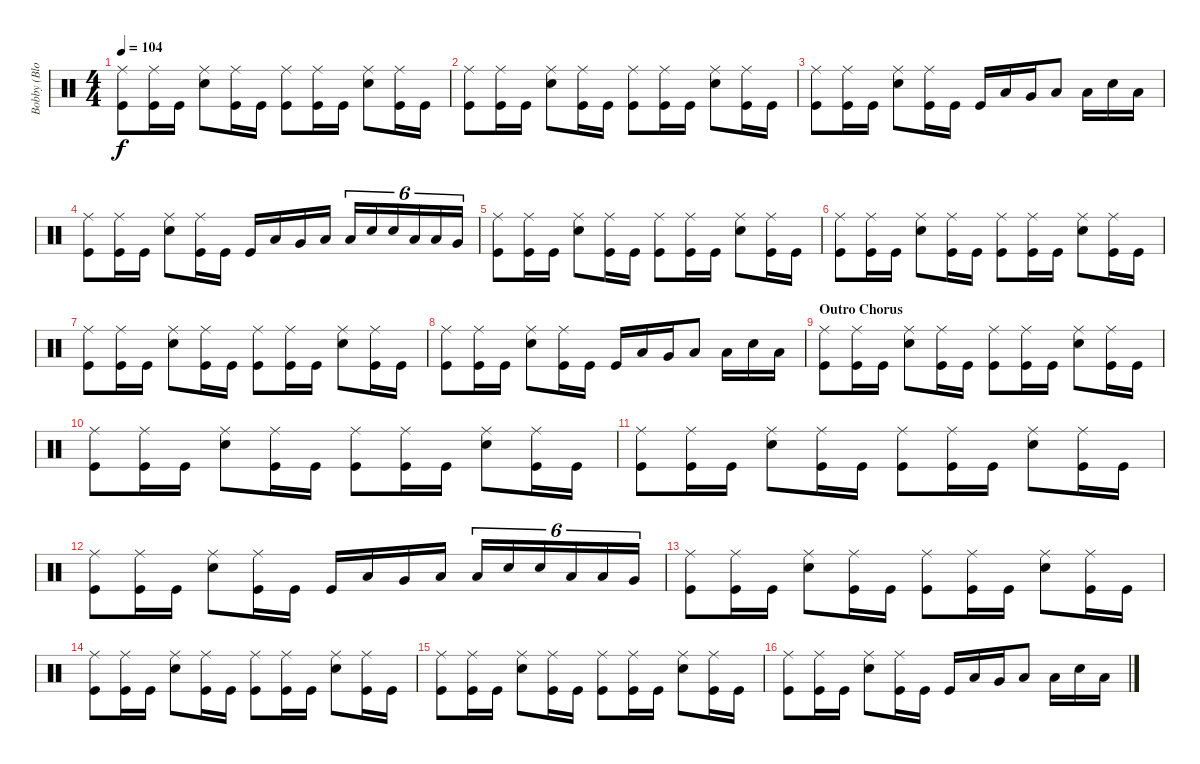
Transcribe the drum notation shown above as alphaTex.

\track ("Bobby (Blotz) Blotzer - Drums" "Bobby (Blo") {instrument percussion}
\staff {score}
\articulation defaults
\ts (4 4)
\tempo 104
\clef neutral
\ks c
("Ride (middle)" "Kick (hit)").8{dy f} ("Ride (middle)" "Kick (hit)").16 "Kick (hit)".16 ("Ride (middle)" "Snare (hit) 2").8 ("Ride (middle)" "Kick (hit)").16 "Kick (hit)".16 ("Ride (middle)" "Kick (hit)").8 ("Ride (middle)" "Kick (hit)").16 "Kick (hit)".16 ("Ride (middle)" "Snare (hit) 2").8 ("Ride (middle)" "Kick (hit)").16 "Kick (hit)".16 |
("Ride (middle)" "Kick (hit)").8 ("Ride (middle)" "Kick (hit)").16 "Kick (hit)".16 ("Ride (middle)" "Snare (hit) 2").8 ("Ride (middle)" "Kick (hit)").16 "Kick (hit)".16 ("Ride (middle)" "Kick (hit)").8 ("Ride (middle)" "Kick (hit)").16 "Kick (hit)".16 ("Ride (middle)" "Snare (hit) 2").8 ("Ride (middle)" "Kick (hit)").16 "Kick (hit)".16 |
("Ride (middle)" "Kick (hit)").8 ("Ride (middle)" "Kick (hit)").16 "Kick (hit)".16 ("Ride (middle)" "Snare (hit) 2").8 ("Ride (middle)" "Kick (hit)").16 "Kick (hit)".16 "Kick (hit)".16 "Low Tom (hit)".16 "Very Low Tom (hit)".16 "Low Tom (hit)".8 "Low Floor Tom (hit)".16 "Snare (hit) 2".16 "Low Tom (hit)".16 |
("Ride (middle)" "Kick (hit)").8 ("Ride (middle)" "Kick (hit)").16 "Kick (hit)".16 ("Ride (middle)" "Snare (hit) 2").8 ("Ride (middle)" "Kick (hit)").16 "Kick (hit)".16 "Kick (hit)".16 "Low Tom (hit)".16 "Very Low Tom (hit)".16 "Low Floor Tom (hit)".16 "Low Tom (hit)".16{tu (6 4)} "Snare (hit) 2".16{tu (6 4)} "Snare (hit) 2".16{tu (6 4)} "Low Tom (hit)".16{tu (6 4)} "Low Tom (hit)".16{tu (6 4)} "Very Low Tom (hit)".16{tu (6 4)} |
("Ride (middle)" "Kick (hit)").8 ("Ride (middle)" "Kick (hit)").16 "Kick (hit)".16 ("Ride (middle)" "Snare (hit) 2").8 ("Ride (middle)" "Kick (hit)").16 "Kick (hit)".16 ("Ride (middle)" "Kick (hit)").8 ("Ride (middle)" "Kick (hit)").16 "Kick (hit)".16 ("Ride (middle)" "Snare (hit) 2").8 ("Ride (middle)" "Kick (hit)").16 "Kick (hit)".16 |
("Ride (middle)" "Kick (hit)").8 ("Ride (middle)" "Kick (hit)").16 "Kick (hit)".16 ("Ride (middle)" "Snare (hit) 2").8 ("Ride (middle)" "Kick (hit)").16 "Kick (hit)".16 ("Ride (middle)" "Kick (hit)").8 ("Ride (middle)" "Kick (hit)").16 "Kick (hit)".16 ("Ride (middle)" "Snare (hit) 2").8 ("Ride (middle)" "Kick (hit)").16 "Kick (hit)".16 |
("Ride (middle)" "Kick (hit)").8 ("Ride (middle)" "Kick (hit)").16 "Kick (hit)".16 ("Ride (middle)" "Snare (hit) 2").8 ("Ride (middle)" "Kick (hit)").16 "Kick (hit)".16 ("Ride (middle)" "Kick (hit)").8 ("Ride (middle)" "Kick (hit)").16 "Kick (hit)".16 ("Ride (middle)" "Snare (hit) 2").8 ("Ride (middle)" "Kick (hit)").16 "Kick (hit)".16 |
("Ride (middle)" "Kick (hit)").8 ("Ride (middle)" "Kick (hit)").16 "Kick (hit)".16 ("Ride (middle)" "Snare (hit) 2").8 ("Ride (middle)" "Kick (hit)").16 "Kick (hit)".16 "Kick (hit)".16 "Low Tom (hit)".16 "Very Low Tom (hit)".16 "Low Tom (hit)".8 "Low Floor Tom (hit)".16 "Snare (hit) 2".16 "Low Tom (hit)".16 |
\section ("" "Outro Chorus")
("Ride (middle)" "Kick (hit)").8 ("Ride (middle)" "Kick (hit)").16 "Kick (hit)".16 ("Ride (middle)" "Snare (hit) 2").8 ("Ride (middle)" "Kick (hit)").16 "Kick (hit)".16 ("Ride (middle)" "Kick (hit)").8 ("Ride (middle)" "Kick (hit)").16 "Kick (hit)".16 ("Ride (middle)" "Snare (hit) 2").8 ("Ride (middle)" "Kick (hit)").16 "Kick (hit)".16 |
("Ride (middle)" "Kick (hit)").8 ("Ride (middle)" "Kick (hit)").16 "Kick (hit)".16 ("Ride (middle)" "Snare (hit) 2").8 ("Ride (middle)" "Kick (hit)").16 "Kick (hit)".16 ("Ride (middle)" "Kick (hit)").8 ("Ride (middle)" "Kick (hit)").16 "Kick (hit)".16 ("Ride (middle)" "Snare (hit) 2").8 ("Ride (middle)" "Kick (hit)").16 "Kick (hit)".16 |
("Ride (middle)" "Kick (hit)").8 ("Ride (middle)" "Kick (hit)").16 "Kick (hit)".16 ("Ride (middle)" "Snare (hit) 2").8 ("Ride (middle)" "Kick (hit)").16 "Kick (hit)".16 ("Ride (middle)" "Kick (hit)").8 ("Ride (middle)" "Kick (hit)").16 "Kick (hit)".16 ("Ride (middle)" "Snare (hit) 2").8 ("Ride (middle)" "Kick (hit)").16 "Kick (hit)".16 |
("Ride (middle)" "Kick (hit)").8 ("Ride (middle)" "Kick (hit)").16 "Kick (hit)".16 ("Ride (middle)" "Snare (hit) 2").8 ("Ride (middle)" "Kick (hit)").16 "Kick (hit)".16 "Kick (hit)".16 "Low Tom (hit)".16 "Very Low Tom (hit)".16 "Low Floor Tom (hit)".16 "Low Tom (hit)".16{tu (6 4)} "Snare (hit) 2".16{tu (6 4)} "Snare (hit) 2".16{tu (6 4)} "Low Tom (hit)".16{tu (6 4)} "Low Tom (hit)".16{tu (6 4)} "Very Low Tom (hit)".16{tu (6 4)} |
("Ride (middle)" "Kick (hit)").8 ("Ride (middle)" "Kick (hit)").16 "Kick (hit)".16 ("Ride (middle)" "Snare (hit) 2").8 ("Ride (middle)" "Kick (hit)").16 "Kick (hit)".16 ("Ride (middle)" "Kick (hit)").8 ("Ride (middle)" "Kick (hit)").16 "Kick (hit)".16 ("Ride (middle)" "Snare (hit) 2").8 ("Ride (middle)" "Kick (hit)").16 "Kick (hit)".16 |
("Ride (middle)" "Kick (hit)").8 ("Ride (middle)" "Kick (hit)").16 "Kick (hit)".16 ("Ride (middle)" "Snare (hit) 2").8 ("Ride (middle)" "Kick (hit)").16 "Kick (hit)".16 ("Ride (middle)" "Kick (hit)").8 ("Ride (middle)" "Kick (hit)").16 "Kick (hit)".16 ("Ride (middle)" "Snare (hit) 2").8 ("Ride (middle)" "Kick (hit)").16 "Kick (hit)".16 |
("Ride (middle)" "Kick (hit)").8 ("Ride (middle)" "Kick (hit)").16 "Kick (hit)".16 ("Ride (middle)" "Snare (hit) 2").8 ("Ride (middle)" "Kick (hit)").16 "Kick (hit)".16 ("Ride (middle)" "Kick (hit)").8 ("Ride (middle)" "Kick (hit)").16 "Kick (hit)".16 ("Ride (middle)" "Snare (hit) 2").8 ("Ride (middle)" "Kick (hit)").16 "Kick (hit)".16 |
("Ride (middle)" "Kick (hit)").8 ("Ride (middle)" "Kick (hit)").16 "Kick (hit)".16 ("Ride (middle)" "Snare (hit) 2").8 ("Ride (middle)" "Kick (hit)").16 "Kick (hit)".16 "Kick (hit)".16 "Low Tom (hit)".16 "Very Low Tom (hit)".16 "Low Tom (hit)".8 "Low Floor Tom (hit)".16 "Snare (hit) 2".16 "Low Tom (hit)".16
